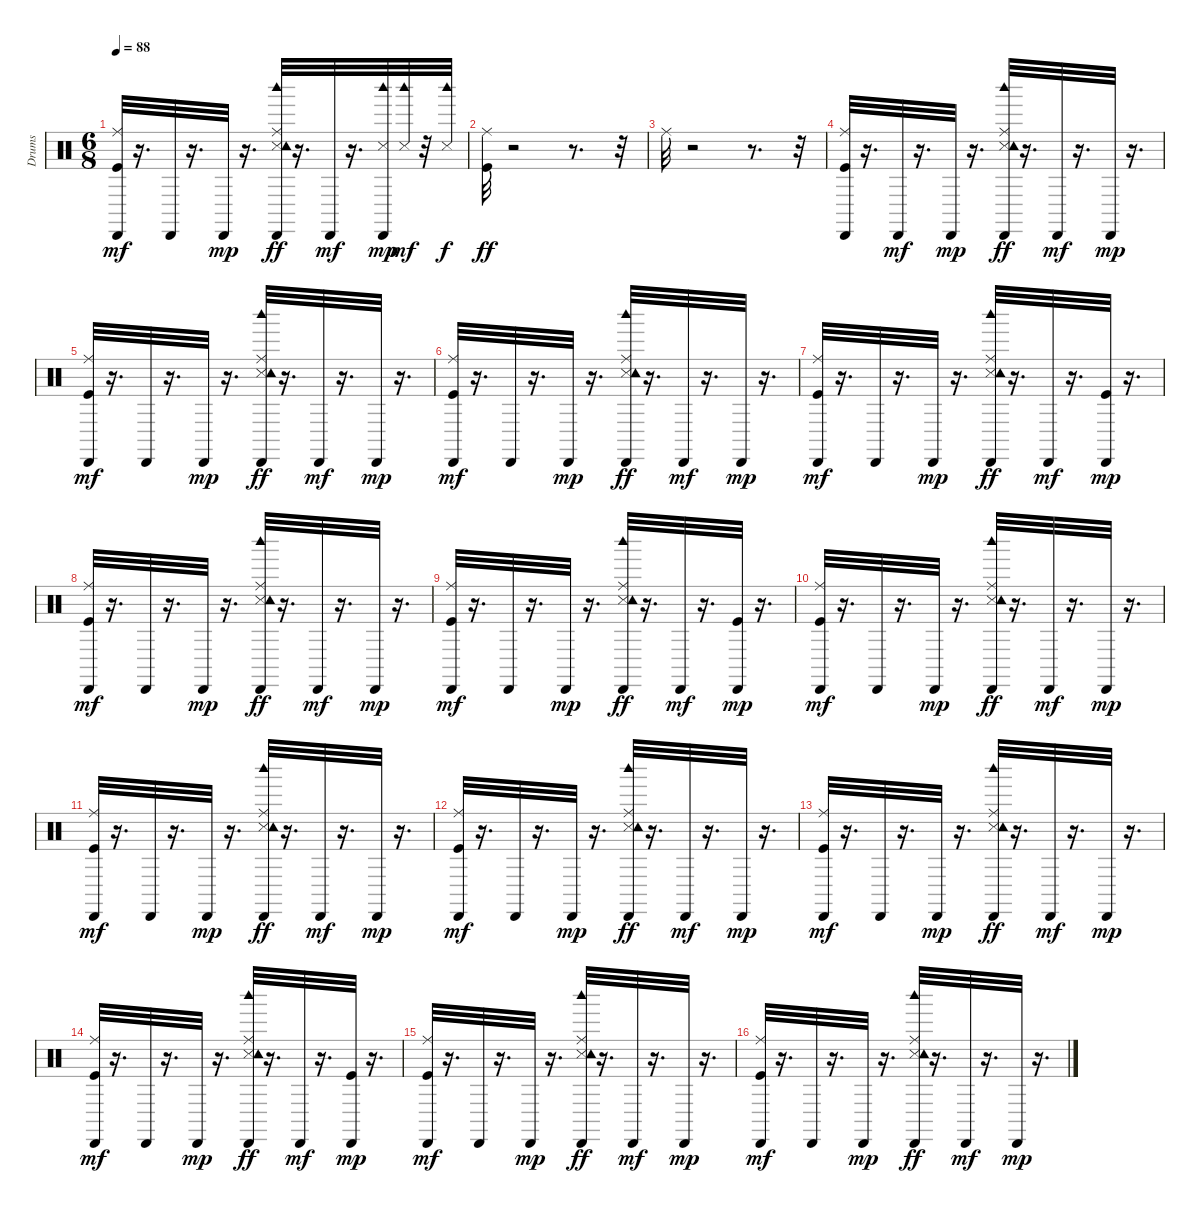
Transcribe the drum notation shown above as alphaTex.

\track ("Drums               " "Drums     ") {instrument percussion}
\staff {score}
\articulation defaults
\ts (6 8)
\tempo 88
\clef neutral
\ks c
("Kick (hit)" "Ride (middle)" "Cabasa (hit)").32{dy mf} r.16{d} "Cabasa (hit)".32 r.16{d} "Cabasa (hit)".32{dy mp} r.16{d} ("Snare (side stick) 3" "Ride (middle)" "Tambourine (hit)" "Cabasa (hit)" "Woodblock high (hit)").32{dy ff} r.16{d} "Cabasa (hit)".32{dy mf} r.16{d} ("Snare (side stick) 3" "Cabasa (hit)" "Woodblock high (hit)").32{dy mp} ("Snare (side stick) 3" "Woodblock high (hit)").32{dy mf} r.32 ("Snare (side stick) 3" "Woodblock high (hit)").32{dy f} |
("Kick (hit)" "Ride (middle)").32{dy ff} r.2 r.8{d} r.32 |
"Ride (middle)".32 r.2 r.8{d} r.32 |
("Kick (hit)" "Ride (middle)" "Cabasa (hit)").32 r.16{d} "Cabasa (hit)".32{dy mf} r.16{d} "Cabasa (hit)".32{dy mp} r.16{d} ("Snare (side stick) 3" "Ride (middle)" "Tambourine (hit)" "Cabasa (hit)" "Woodblock high (hit)").32{dy ff} r.16{d} "Cabasa (hit)".32{dy mf} r.16{d} "Cabasa (hit)".32{dy mp} r.16{d} |
("Kick (hit)" "Ride (middle)" "Cabasa (hit)").32{dy mf} r.16{d} "Cabasa (hit)".32 r.16{d} "Cabasa (hit)".32{dy mp} r.16{d} ("Snare (side stick) 3" "Ride (middle)" "Tambourine (hit)" "Cabasa (hit)" "Woodblock high (hit)").32{dy ff} r.16{d} "Cabasa (hit)".32{dy mf} r.16{d} "Cabasa (hit)".32{dy mp} r.16{d} |
("Kick (hit)" "Ride (middle)" "Cabasa (hit)").32{dy mf} r.16{d} "Cabasa (hit)".32 r.16{d} "Cabasa (hit)".32{dy mp} r.16{d} ("Snare (side stick) 3" "Ride (middle)" "Tambourine (hit)" "Cabasa (hit)" "Woodblock high (hit)").32{dy ff} r.16{d} "Cabasa (hit)".32{dy mf} r.16{d} "Cabasa (hit)".32{dy mp} r.16{d} |
("Kick (hit)" "Ride (middle)" "Cabasa (hit)").32{dy mf} r.16{d} "Cabasa (hit)".32 r.16{d} "Cabasa (hit)".32{dy mp} r.16{d} ("Snare (side stick) 3" "Ride (middle)" "Tambourine (hit)" "Cabasa (hit)" "Woodblock high (hit)").32{dy ff} r.16{d} "Cabasa (hit)".32{dy mf} r.16{d} ("Kick (hit)" "Cabasa (hit)").32{dy mp} r.16{d} |
("Kick (hit)" "Ride (middle)" "Cabasa (hit)").32{dy mf} r.16{d} "Cabasa (hit)".32 r.16{d} "Cabasa (hit)".32{dy mp} r.16{d} ("Snare (side stick) 3" "Ride (middle)" "Tambourine (hit)" "Cabasa (hit)" "Woodblock high (hit)").32{dy ff} r.16{d} "Cabasa (hit)".32{dy mf} r.16{d} "Cabasa (hit)".32{dy mp} r.16{d} |
("Kick (hit)" "Ride (middle)" "Cabasa (hit)").32{dy mf} r.16{d} "Cabasa (hit)".32 r.16{d} "Cabasa (hit)".32{dy mp} r.16{d} ("Snare (side stick) 3" "Ride (middle)" "Tambourine (hit)" "Cabasa (hit)" "Woodblock high (hit)").32{dy ff} r.16{d} "Cabasa (hit)".32{dy mf} r.16{d} ("Kick (hit)" "Cabasa (hit)").32{dy mp} r.16{d} |
("Kick (hit)" "Ride (middle)" "Cabasa (hit)").32{dy mf} r.16{d} "Cabasa (hit)".32 r.16{d} "Cabasa (hit)".32{dy mp} r.16{d} ("Snare (side stick) 3" "Ride (middle)" "Tambourine (hit)" "Cabasa (hit)" "Woodblock high (hit)").32{dy ff} r.16{d} "Cabasa (hit)".32{dy mf} r.16{d} "Cabasa (hit)".32{dy mp} r.16{d} |
("Kick (hit)" "Ride (middle)" "Cabasa (hit)").32{dy mf} r.16{d} "Cabasa (hit)".32 r.16{d} "Cabasa (hit)".32{dy mp} r.16{d} ("Snare (side stick) 3" "Ride (middle)" "Tambourine (hit)" "Cabasa (hit)" "Woodblock high (hit)").32{dy ff} r.16{d} "Cabasa (hit)".32{dy mf} r.16{d} "Cabasa (hit)".32{dy mp} r.16{d} |
("Kick (hit)" "Ride (middle)" "Cabasa (hit)").32{dy mf} r.16{d} "Cabasa (hit)".32 r.16{d} "Cabasa (hit)".32{dy mp} r.16{d} ("Snare (side stick) 3" "Ride (middle)" "Tambourine (hit)" "Cabasa (hit)" "Woodblock high (hit)").32{dy ff} r.16{d} "Cabasa (hit)".32{dy mf} r.16{d} "Cabasa (hit)".32{dy mp} r.16{d} |
("Kick (hit)" "Ride (middle)" "Cabasa (hit)").32{dy mf} r.16{d} "Cabasa (hit)".32 r.16{d} "Cabasa (hit)".32{dy mp} r.16{d} ("Snare (side stick) 3" "Ride (middle)" "Tambourine (hit)" "Cabasa (hit)" "Woodblock high (hit)").32{dy ff} r.16{d} "Cabasa (hit)".32{dy mf} r.16{d} "Cabasa (hit)".32{dy mp} r.16{d} |
("Kick (hit)" "Ride (middle)" "Cabasa (hit)").32{dy mf} r.16{d} "Cabasa (hit)".32 r.16{d} "Cabasa (hit)".32{dy mp} r.16{d} ("Snare (side stick) 3" "Ride (middle)" "Tambourine (hit)" "Cabasa (hit)" "Woodblock high (hit)").32{dy ff} r.16{d} "Cabasa (hit)".32{dy mf} r.16{d} ("Kick (hit)" "Cabasa (hit)").32{dy mp} r.16{d} |
("Kick (hit)" "Ride (middle)" "Cabasa (hit)").32{dy mf} r.16{d} "Cabasa (hit)".32 r.16{d} "Cabasa (hit)".32{dy mp} r.16{d} ("Snare (side stick) 3" "Ride (middle)" "Tambourine (hit)" "Cabasa (hit)" "Woodblock high (hit)").32{dy ff} r.16{d} "Cabasa (hit)".32{dy mf} r.16{d} "Cabasa (hit)".32{dy mp} r.16{d} |
("Kick (hit)" "Ride (middle)" "Cabasa (hit)").32{dy mf} r.16{d} "Cabasa (hit)".32 r.16{d} "Cabasa (hit)".32{dy mp} r.16{d} ("Snare (side stick) 3" "Ride (middle)" "Tambourine (hit)" "Cabasa (hit)" "Woodblock high (hit)").32{dy ff} r.16{d} "Cabasa (hit)".32{dy mf} r.16{d} "Cabasa (hit)".32{dy mp} r.16{d}
